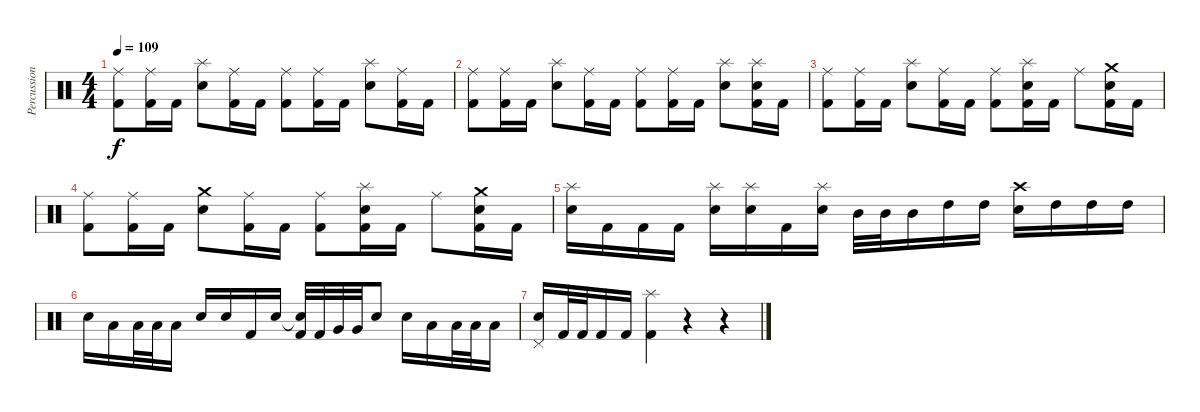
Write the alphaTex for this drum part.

\track ("Percussions" "Percussion") {instrument percussion}
\staff {score}
\articulation defaults
\ts (4 4)
\tempo 109
\clef neutral
\ks c
("Ride (middle)" "Kick (hit) 2").8{dy f} ("Ride (middle)" "Kick (hit) 2").16 "Kick (hit) 2".16 ("Splash (hit)" "Electric Snare (hit)").8 ("Ride (middle)" "Kick (hit) 2").16 "Kick (hit) 2".16 ("Ride (middle)" "Kick (hit) 2").8 ("Ride (middle)" "Kick (hit) 2").16 "Kick (hit) 2".16 ("Splash (hit)" "Electric Snare (hit)").8 ("Ride (middle)" "Kick (hit) 2").16 "Kick (hit) 2".16 |
("Ride (middle)" "Kick (hit) 2").8 ("Ride (middle)" "Kick (hit) 2").16 "Kick (hit) 2".16 ("Splash (hit)" "Electric Snare (hit)").8 ("Ride (middle)" "Kick (hit) 2").16 "Kick (hit) 2".16 ("Ride (middle)" "Kick (hit) 2").8 ("Ride (middle)" "Kick (hit) 2").16 "Kick (hit) 2".16 ("Splash (hit)" "Electric Snare (hit)").8 ("Splash (hit)" "Electric Snare (hit)" "Kick (hit) 2").16 "Kick (hit) 2".16 |
("Ride (middle)" "Kick (hit) 2").8 ("Ride (middle)" "Kick (hit) 2").16 "Kick (hit) 2".16 ("Splash (hit)" "Electric Snare (hit)").8 ("Ride (middle)" "Kick (hit) 2").16 "Kick (hit) 2".16 ("Ride (middle)" "Kick (hit) 2").8 ("Splash (hit)" "Electric Snare (hit)" "Kick (hit) 2").16 "Kick (hit) 2".16 "Ride (middle)".8 ("Crash medium (hit)" "Electric Snare (hit)" "Kick (hit) 2").16 "Kick (hit) 2".16 |
("Ride (middle)" "Kick (hit) 2").8 ("Ride (middle)" "Kick (hit) 2").16 "Kick (hit) 2".16 ("Crash medium (hit)" "Electric Snare (hit)").8 ("Ride (middle)" "Kick (hit) 2").16 "Kick (hit) 2".16 ("Ride (middle)" "Kick (hit) 2").8 ("Splash (hit)" "Electric Snare (hit)" "Kick (hit) 2").16 "Kick (hit) 2".16 "Ride (middle)".8 ("Crash medium (hit)" "Electric Snare (hit)" "Kick (hit) 2").16 "Kick (hit) 2".16 |
("Splash (hit)" "Electric Snare (hit)").16 "Kick (hit) 2".16 "Kick (hit) 2".16 "Kick (hit) 2".16 ("Splash (hit)" "Electric Snare (hit)").16 ("Splash (hit)" "Electric Snare (hit)").16 "Kick (hit) 2".16 ("Splash (hit)" "Electric Snare (hit)").16 "Mid Tom (hit)".32 "Mid Tom (hit)".32 "Mid Tom (hit)".16 "High Tom (hit)".16 "High Tom (hit)".16 ("Crash high (hit)" "Electric Snare (hit)").16 "High Tom (hit)".16 "High Tom (hit)".16 "High Tom (hit)".16 |
"Electric Snare (hit)".16 "Low Tom (hit)".16 "Low Tom (hit)".32 "Low Tom (hit)".32 "Low Tom (hit)".16 "Electric Snare (hit)".16 "Electric Snare (hit)".16 "Kick (hit) 2".16 "Electric Snare (hit)".16 ("Snare (hit)"{t} "Kick (hit) 2").32 "Kick (hit) 2".32 "Very Low Tom (hit)".32 "Very Low Tom (hit)".32 "Electric Snare (hit)".8 "Electric Snare (hit)".16 "Low Tom (hit)".16 "Low Tom (hit)".32 "Low Tom (hit)".32 "Low Tom (hit)".16 |
("Pedal Hi-Hat (hit)" "Electric Snare (hit)").16 "Kick (hit) 2".32 "Kick (hit) 2".32 "Kick (hit) 2".16 "Kick (hit) 2".16 ("Splash (hit)" "Kick (hit) 2").4 r.4 r.4
